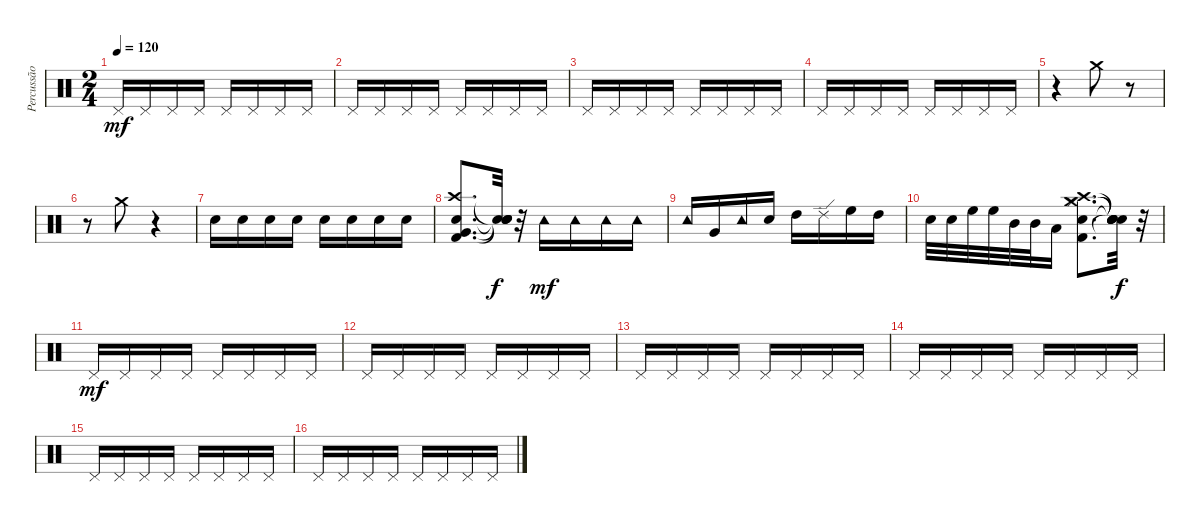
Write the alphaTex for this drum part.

\track ("Percussão" "Percussão") {instrument percussion}
\staff {score}
\articulation defaults
\ts (2 4)
\tempo 120
\clef neutral
\ks c "Pedal Hi-Hat (hit)".16{dy mf} "Pedal Hi-Hat (hit)".16 "Pedal Hi-Hat (hit)".16 "Pedal Hi-Hat (hit)".16 "Pedal Hi-Hat (hit)".16 "Pedal Hi-Hat (hit)".16 "Pedal Hi-Hat (hit)".16 "Pedal Hi-Hat (hit)".16
|
"Pedal Hi-Hat (hit)".16 "Pedal Hi-Hat (hit)".16 "Pedal Hi-Hat (hit)".16 "Pedal Hi-Hat (hit)".16 "Pedal Hi-Hat (hit)".16 "Pedal Hi-Hat (hit)".16 "Pedal Hi-Hat (hit)".16 "Pedal Hi-Hat (hit)".16 |
"Pedal Hi-Hat (hit)".16 "Pedal Hi-Hat (hit)".16 "Pedal Hi-Hat (hit)".16 "Pedal Hi-Hat (hit)".16 "Pedal Hi-Hat (hit)".16 "Pedal Hi-Hat (hit)".16 "Pedal Hi-Hat (hit)".16 "Pedal Hi-Hat (hit)".16 |
"Pedal Hi-Hat (hit)".16 "Pedal Hi-Hat (hit)".16 "Pedal Hi-Hat (hit)".16 "Pedal Hi-Hat (hit)".16 "Pedal Hi-Hat (hit)".16 "Pedal Hi-Hat (hit)".16 "Pedal Hi-Hat (hit)".16 "Pedal Hi-Hat (hit)".16 |
r.4 "Crash medium (hit)".8 r.8 |
r.8 "Crash medium (hit)".8 r.4 |
"Snare (hit) 2".16 "Snare (hit) 2".16 "Snare (hit) 2".16 "Snare (hit) 2".16 "Snare (hit) 2".16 "Snare (hit) 2".16 "Snare (hit) 2".16 "Snare (hit) 2".16 |
("Crash high (hit)" "Very Low Tom (hit)" "Snare (hit) 2" "Kick (hit) 2").8{d} ("Snare (hit)"{t} "Snare (hit)"{t} "Snare (hit)"{t} "Snare (hit)"{t}).32{dy f} r.32 "Tambourine (hit)".16{dy mf} "Tambourine (hit)".16 "Tambourine (hit)".16 "Tambourine (hit)".16 |
"Tambourine (hit)".16 "Very Low Tom (hit)".16 "Tambourine (hit)".16 "Snare (hit) 2".16 "High Tom (hit)".16 "Ride (edge) 2".16 "High Floor Tom (hit)".16 "High Tom (hit)".16 |
"Snare (hit) 2".32 "Snare (hit) 2".32 "High Floor Tom (hit)".32 "High Floor Tom (hit)".32 "Mid Tom (hit)".32 "Mid Tom (hit)".32 "Low Floor Tom (hit)".16 ("Kick (hit) 2" "Snare (hit) 2" "Hi-Hat (closed)" "Crash medium (hit)" "Crash high (hit)").8{d} ("Snare (hit)"{t} "Snare (hit)"{t} "Snare (hit)"{t} "Snare (hit)"{t} "Snare (hit)"{t}).32{dy f} r.32 |
"Pedal Hi-Hat (hit)".16{dy mf} "Pedal Hi-Hat (hit)".16 "Pedal Hi-Hat (hit)".16 "Pedal Hi-Hat (hit)".16 "Pedal Hi-Hat (hit)".16 "Pedal Hi-Hat (hit)".16 "Pedal Hi-Hat (hit)".16 "Pedal Hi-Hat (hit)".16 |
"Pedal Hi-Hat (hit)".16 "Pedal Hi-Hat (hit)".16 "Pedal Hi-Hat (hit)".16 "Pedal Hi-Hat (hit)".16 "Pedal Hi-Hat (hit)".16 "Pedal Hi-Hat (hit)".16 "Pedal Hi-Hat (hit)".16 "Pedal Hi-Hat (hit)".16 |
"Pedal Hi-Hat (hit)".16 "Pedal Hi-Hat (hit)".16 "Pedal Hi-Hat (hit)".16 "Pedal Hi-Hat (hit)".16 "Pedal Hi-Hat (hit)".16 "Pedal Hi-Hat (hit)".16 "Pedal Hi-Hat (hit)".16 "Pedal Hi-Hat (hit)".16 |
"Pedal Hi-Hat (hit)".16 "Pedal Hi-Hat (hit)".16 "Pedal Hi-Hat (hit)".16 "Pedal Hi-Hat (hit)".16 "Pedal Hi-Hat (hit)".16 "Pedal Hi-Hat (hit)".16 "Pedal Hi-Hat (hit)".16 "Pedal Hi-Hat (hit)".16 |
"Pedal Hi-Hat (hit)".16 "Pedal Hi-Hat (hit)".16 "Pedal Hi-Hat (hit)".16 "Pedal Hi-Hat (hit)".16 "Pedal Hi-Hat (hit)".16 "Pedal Hi-Hat (hit)".16 "Pedal Hi-Hat (hit)".16 "Pedal Hi-Hat (hit)".16 |
"Pedal Hi-Hat (hit)".16 "Pedal Hi-Hat (hit)".16 "Pedal Hi-Hat (hit)".16 "Pedal Hi-Hat (hit)".16 "Pedal Hi-Hat (hit)".16 "Pedal Hi-Hat (hit)".16 "Pedal Hi-Hat (hit)".16 "Pedal Hi-Hat (hit)".16
